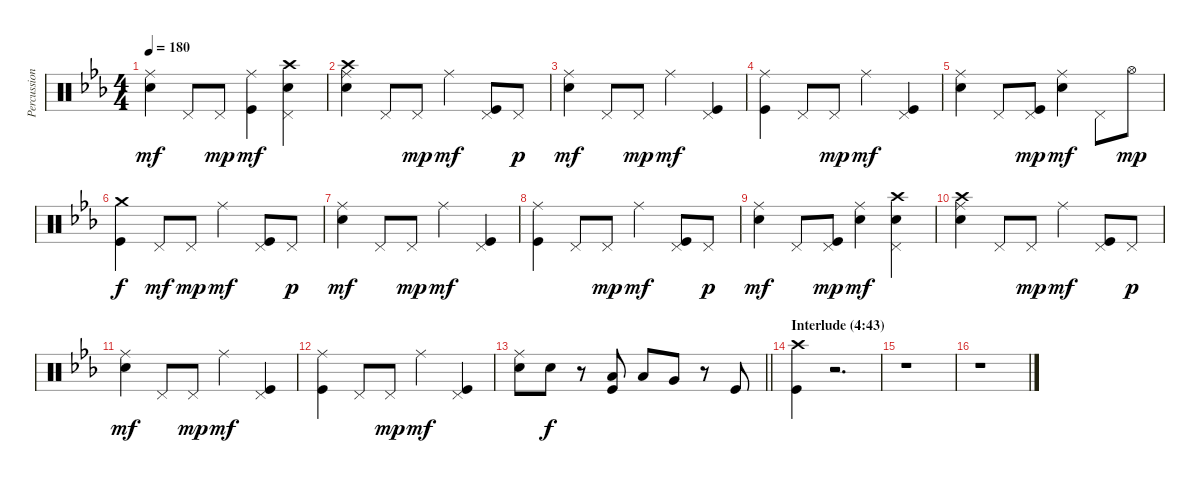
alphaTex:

\track ("Percussion" "Percussion") {instrument percussion}
\staff {score}
\articulation defaults
\ts (4 4)
\tempo 180
\clef neutral
\ks cminor
("Ride (middle)" "Snare (hit) 2").4{dy mf} "Pedal Hi-Hat (hit)".8 "Pedal Hi-Hat (hit)".8{dy mp} ("Ride (middle)" "Kick (hit)").4{dy mf} ("Crash high (hit)" "Pedal Hi-Hat (hit)" "Snare (hit) 2").4 |
("Crash high (hit)" "Ride (middle)" "Snare (hit) 2").4 "Pedal Hi-Hat (hit)".8 "Pedal Hi-Hat (hit)".8{dy mp} "Ride (middle)".4{dy mf} ("Pedal Hi-Hat (hit)" "Kick (hit)").8 "Pedal Hi-Hat (hit)".8{dy p} |
("Ride (middle)" "Snare (hit) 2").4{dy mf} "Pedal Hi-Hat (hit)".8 "Pedal Hi-Hat (hit)".8{dy mp} "Ride (middle)".4{dy mf} ("Pedal Hi-Hat (hit)" "Kick (hit)").4 |
("Ride (middle)" "Kick (hit)").4 "Pedal Hi-Hat (hit)".8 "Pedal Hi-Hat (hit)".8{dy mp} "Ride (middle)".4{dy mf} ("Pedal Hi-Hat (hit)" "Kick (hit)").4 |
("Ride (middle)" "Snare (hit) 2").4 "Pedal Hi-Hat (hit)".8 ("Pedal Hi-Hat (hit)" "Kick (hit)").8{dy mp} ("Ride (middle)" "Snare (hit) 2").4{dy mf} "Pedal Hi-Hat (hit)".8 "Hi-Hat (open)".8{dy mp} |
("Crash medium (hit)" "Kick (hit)").4{dy f} "Pedal Hi-Hat (hit)".8{dy mf} "Pedal Hi-Hat (hit)".8{dy mp} "Ride (middle)".4{dy mf} ("Pedal Hi-Hat (hit)" "Kick (hit)").8 "Pedal Hi-Hat (hit)".8{dy p} |
("Ride (middle)" "Snare (hit) 2").4{dy mf} "Pedal Hi-Hat (hit)".8 "Pedal Hi-Hat (hit)".8{dy mp} "Ride (middle)".4{dy mf} ("Pedal Hi-Hat (hit)" "Kick (hit)").4 |
("Ride (middle)" "Kick (hit)").4 "Pedal Hi-Hat (hit)".8 "Pedal Hi-Hat (hit)".8{dy mp} "Ride (middle)".4{dy mf} ("Pedal Hi-Hat (hit)" "Kick (hit)").8 "Pedal Hi-Hat (hit)".8{dy p} |
("Ride (middle)" "Snare (hit) 2").4{dy mf} "Pedal Hi-Hat (hit)".8 ("Pedal Hi-Hat (hit)" "Kick (hit)").8{dy mp} ("Ride (middle)" "Snare (hit) 2").4{dy mf} ("Crash high (hit)" "Pedal Hi-Hat (hit)" "Snare (hit) 2").4 |
("Crash high (hit)" "Ride (middle)" "Snare (hit) 2").4 "Pedal Hi-Hat (hit)".8 "Pedal Hi-Hat (hit)".8{dy mp} "Ride (middle)".4{dy mf} ("Pedal Hi-Hat (hit)" "Kick (hit)").8 "Pedal Hi-Hat (hit)".8{dy p} |
("Ride (middle)" "Snare (hit) 2").4{dy mf} "Pedal Hi-Hat (hit)".8 "Pedal Hi-Hat (hit)".8{dy mp} "Ride (middle)".4{dy mf} ("Pedal Hi-Hat (hit)" "Kick (hit)").4 |
("Ride (middle)" "Kick (hit)").4 "Pedal Hi-Hat (hit)".8 "Pedal Hi-Hat (hit)".8{dy mp} "Ride (middle)".4{dy mf} ("Pedal Hi-Hat (hit)" "Kick (hit)").4 |
\barLineRight lightlight
("Ride (middle)" "Snare (hit) 2").8 "Snare (hit) 2".8{dy f} r.8 ("Low Floor Tom (hit)" "Kick (hit)").8 "Low Tom (hit)".8 "Very Low Tom (hit)".8 r.8 "Kick (hit)".8 |
\section ("" "Interlude (4:43)")
("Crash high (hit)" "Kick (hit)").4 r.2{d} |
r.1 |
r.1
